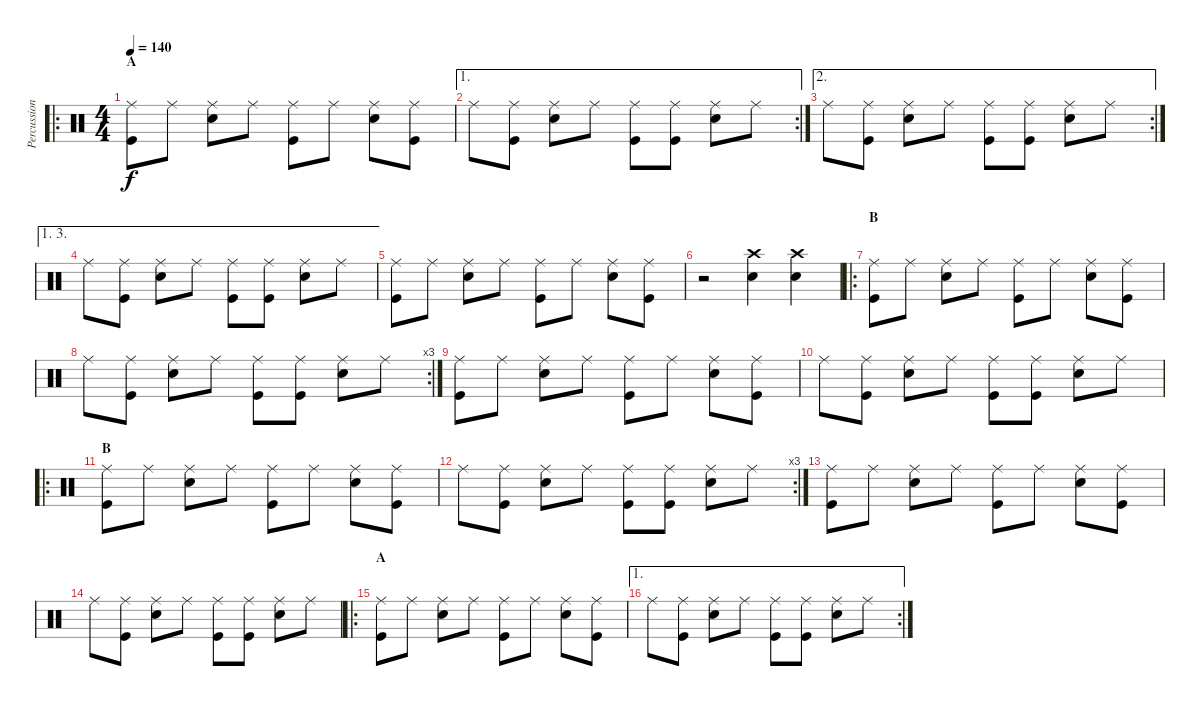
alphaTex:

\track ("Percussions" "Percussion") {instrument percussion}
\staff {score}
\articulation defaults
\ro
\ts (4 4)
\section ("" "A")
\tempo 140
\clef neutral
\ks c
("Ride (middle)" "Kick (hit)").8{dy f} "Ride (middle)".8 ("Ride (middle)" "Snare (hit) 2").8 "Ride (middle)".8 ("Ride (middle)" "Kick (hit)").8 "Ride (middle)".8 ("Ride (middle)" "Snare (hit) 2").8 ("Ride (middle)" "Kick (hit)").8 |
\ae 1
\rc 2 "Ride (middle)".8
("Ride (middle)" "Kick (hit)").8 ("Ride (middle)" "Snare (hit) 2").8 "Ride (middle)".8 ("Ride (middle)" "Kick (hit)").8 ("Ride (middle)" "Kick (hit)").8 ("Ride (middle)" "Snare (hit) 2").8 "Ride (middle)".8 |
\ae 2
\rc 2 "Ride (middle)".8
("Ride (middle)" "Kick (hit)").8 ("Ride (middle)" "Snare (hit) 2").8 "Ride (middle)".8 ("Ride (middle)" "Kick (hit)").8 ("Ride (middle)" "Kick (hit)").8 ("Ride (middle)" "Snare (hit) 2").8 "Ride (middle)".8 |
\ae (1 3)
"Ride (middle)".8 ("Ride (middle)" "Kick (hit)").8 ("Ride (middle)" "Snare (hit) 2").8 "Ride (middle)".8 ("Ride (middle)" "Kick (hit)").8 ("Ride (middle)" "Kick (hit)").8 ("Ride (middle)" "Snare (hit) 2").8 "Ride (middle)".8 |
("Ride (middle)" "Kick (hit)").8 "Ride (middle)".8 ("Ride (middle)" "Snare (hit) 2").8 "Ride (middle)".8 ("Ride (middle)" "Kick (hit)").8 "Ride (middle)".8 ("Ride (middle)" "Snare (hit) 2").8 ("Ride (middle)" "Kick (hit)").8 |
r.2 ("Crash high (hit)" "Snare (hit) 2").4 ("Crash high (hit)" "Snare (hit) 2").4 |
\ro
\section ("" "B")
("Ride (middle)" "Kick (hit)").8 "Ride (middle)".8 ("Ride (middle)" "Snare (hit) 2").8 "Ride (middle)".8 ("Ride (middle)" "Kick (hit)").8 "Ride (middle)".8 ("Ride (middle)" "Snare (hit) 2").8 ("Ride (middle)" "Kick (hit)").8 |
\rc 3 "Ride (middle)".8
("Ride (middle)" "Kick (hit)").8 ("Ride (middle)" "Snare (hit) 2").8 "Ride (middle)".8 ("Ride (middle)" "Kick (hit)").8 ("Ride (middle)" "Kick (hit)").8 ("Ride (middle)" "Snare (hit) 2").8 "Ride (middle)".8 |
("Ride (middle)" "Kick (hit)").8 "Ride (middle)".8 ("Ride (middle)" "Snare (hit) 2").8 "Ride (middle)".8 ("Ride (middle)" "Kick (hit)").8 "Ride (middle)".8 ("Ride (middle)" "Snare (hit) 2").8 ("Ride (middle)" "Kick (hit)").8 |
"Ride (middle)".8 ("Ride (middle)" "Kick (hit)").8 ("Ride (middle)" "Snare (hit) 2").8 "Ride (middle)".8 ("Ride (middle)" "Kick (hit)").8 ("Ride (middle)" "Kick (hit)").8 ("Ride (middle)" "Snare (hit) 2").8 "Ride (middle)".8 |
\ro
\section ("" "B")
("Ride (middle)" "Kick (hit)").8 "Ride (middle)".8 ("Ride (middle)" "Snare (hit) 2").8 "Ride (middle)".8 ("Ride (middle)" "Kick (hit)").8 "Ride (middle)".8 ("Ride (middle)" "Snare (hit) 2").8 ("Ride (middle)" "Kick (hit)").8 |
\rc 3 "Ride (middle)".8
("Ride (middle)" "Kick (hit)").8 ("Ride (middle)" "Snare (hit) 2").8 "Ride (middle)".8 ("Ride (middle)" "Kick (hit)").8 ("Ride (middle)" "Kick (hit)").8 ("Ride (middle)" "Snare (hit) 2").8 "Ride (middle)".8 |
("Ride (middle)" "Kick (hit)").8 "Ride (middle)".8 ("Ride (middle)" "Snare (hit) 2").8 "Ride (middle)".8 ("Ride (middle)" "Kick (hit)").8 "Ride (middle)".8 ("Ride (middle)" "Snare (hit) 2").8 ("Ride (middle)" "Kick (hit)").8 |
"Ride (middle)".8 ("Ride (middle)" "Kick (hit)").8 ("Ride (middle)" "Snare (hit) 2").8 "Ride (middle)".8 ("Ride (middle)" "Kick (hit)").8 ("Ride (middle)" "Kick (hit)").8 ("Ride (middle)" "Snare (hit) 2").8 "Ride (middle)".8 |
\ro
\section ("" "A")
("Ride (middle)" "Kick (hit)").8 "Ride (middle)".8 ("Ride (middle)" "Snare (hit) 2").8 "Ride (middle)".8 ("Ride (middle)" "Kick (hit)").8 "Ride (middle)".8 ("Ride (middle)" "Snare (hit) 2").8 ("Ride (middle)" "Kick (hit)").8 |
\ae 1
\rc 2 "Ride (middle)".8
("Ride (middle)" "Kick (hit)").8 ("Ride (middle)" "Snare (hit) 2").8 "Ride (middle)".8 ("Ride (middle)" "Kick (hit)").8 ("Ride (middle)" "Kick (hit)").8 ("Ride (middle)" "Snare (hit) 2").8 "Ride (middle)".8
